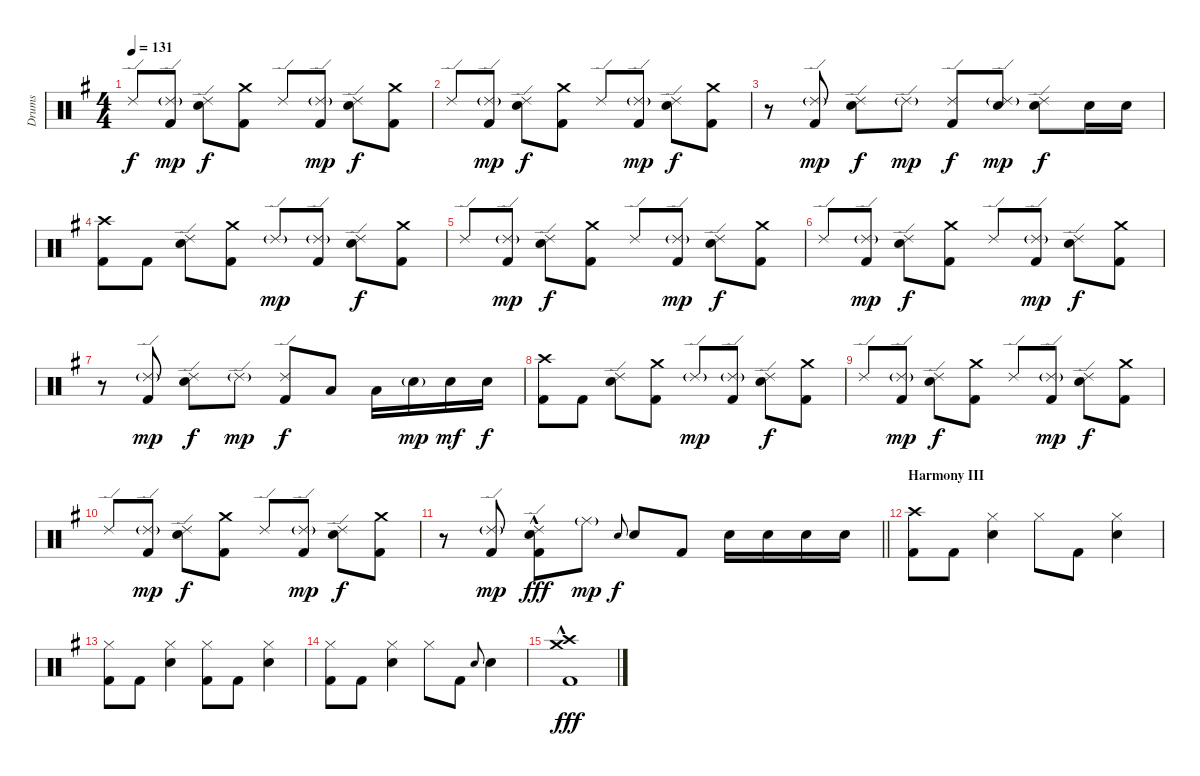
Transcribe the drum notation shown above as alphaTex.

\track ("Drums" "Drums") {instrument percussion}
\staff {score}
\articulation defaults
\ts (4 4)
\tempo 131
\clef neutral
\ks g "Ride (edge) 2".8{dy f}
("Ride (edge) 2"{g} "Kick (hit) 2").8{dy mp} ("Ride (edge) 2" "Electric Snare (hit)").8{dy f} ("Crash medium (hit)" "Kick (hit) 2").8 "Ride (edge) 2".8 ("Ride (edge) 2"{g} "Kick (hit) 2").8{dy mp} ("Ride (edge) 2" "Electric Snare (hit)").8{dy f} ("Crash medium (hit)" "Kick (hit) 2").8 |
"Ride (edge) 2".8 ("Ride (edge) 2"{g} "Kick (hit) 2").8{dy mp} ("Ride (edge) 2" "Electric Snare (hit)").8{dy f} ("Crash medium (hit)" "Kick (hit) 2").8 "Ride (edge) 2".8 ("Ride (edge) 2"{g} "Kick (hit) 2").8{dy mp} ("Ride (edge) 2" "Electric Snare (hit)").8{dy f} ("Crash medium (hit)" "Kick (hit) 2").8 |
r.8 ("Ride (edge) 2"{g} "Kick (hit) 2").8{dy mp} ("Ride (edge) 2" "Electric Snare (hit)").8{dy f} "Ride (edge) 2"{g}.8{dy mp} ("Ride (edge) 2" "Kick (hit) 2").8{dy f} ("Ride (edge) 2"{g} "Electric Snare (hit)").8{dy mp} ("Ride (edge) 2" "Electric Snare (hit)").8{dy f} "Electric Snare (hit)".16 "Electric Snare (hit)".16 |
("Crash high (hit)" "Kick (hit) 2").8 "Kick (hit) 2".8 ("Ride (edge) 2" "Electric Snare (hit)").8 ("Crash medium (hit)" "Kick (hit) 2").8 "Ride (edge) 2"{g}.8{dy mp} ("Ride (edge) 2"{g} "Kick (hit) 2").8 ("Ride (edge) 2" "Electric Snare (hit)").8{dy f} ("Crash medium (hit)" "Kick (hit) 2").8 |
"Ride (edge) 2".8 ("Ride (edge) 2"{g} "Kick (hit) 2").8{dy mp} ("Ride (edge) 2" "Electric Snare (hit)").8{dy f} ("Crash medium (hit)" "Kick (hit) 2").8 "Ride (edge) 2".8 ("Ride (edge) 2"{g} "Kick (hit) 2").8{dy mp} ("Ride (edge) 2" "Electric Snare (hit)").8{dy f} ("Crash medium (hit)" "Kick (hit) 2").8 |
"Ride (edge) 2".8 ("Ride (edge) 2"{g} "Kick (hit) 2").8{dy mp} ("Ride (edge) 2" "Electric Snare (hit)").8{dy f} ("Crash medium (hit)" "Kick (hit) 2").8 "Ride (edge) 2".8 ("Ride (edge) 2"{g} "Kick (hit) 2").8{dy mp} ("Ride (edge) 2" "Electric Snare (hit)").8{dy f} ("Crash medium (hit)" "Kick (hit) 2").8 |
r.8 ("Ride (edge) 2"{g} "Kick (hit) 2").8{dy mp} ("Ride (edge) 2" "Electric Snare (hit)").8{dy f} "Ride (edge) 2"{g}.8{dy mp} ("Ride (edge) 2" "Kick (hit) 2").8{dy f} "Low Tom (hit)".8 "Low Tom (hit)".16 "Electric Snare (hit)"{g}.16{dy mp} "Electric Snare (hit)".16{dy mf} "Electric Snare (hit)".16{dy f} |
("Crash high (hit)" "Kick (hit) 2").8 "Kick (hit) 2".8 ("Ride (edge) 2" "Electric Snare (hit)").8 ("Crash medium (hit)" "Kick (hit) 2").8 "Ride (edge) 2"{g}.8{dy mp} ("Ride (edge) 2"{g} "Kick (hit) 2").8 ("Ride (edge) 2" "Electric Snare (hit)").8{dy f} ("Crash medium (hit)" "Kick (hit) 2").8 |
"Ride (edge) 2".8 ("Ride (edge) 2"{g} "Kick (hit) 2").8{dy mp} ("Ride (edge) 2" "Electric Snare (hit)").8{dy f} ("Crash medium (hit)" "Kick (hit) 2").8 "Ride (edge) 2".8 ("Ride (edge) 2"{g} "Kick (hit) 2").8{dy mp} ("Ride (edge) 2" "Electric Snare (hit)").8{dy f} ("Crash medium (hit)" "Kick (hit) 2").8 |
"Ride (edge) 2".8 ("Ride (edge) 2"{g} "Kick (hit) 2").8{dy mp} ("Ride (edge) 2" "Electric Snare (hit)").8{dy f} ("Crash medium (hit)" "Kick (hit) 2").8 "Ride (edge) 2".8 ("Ride (edge) 2"{g} "Kick (hit) 2").8{dy mp} ("Ride (edge) 2" "Electric Snare (hit)").8{dy f} ("Crash medium (hit)" "Kick (hit) 2").8 |
\barLineRight lightlight
r.8 ("Ride (edge) 2"{g} "Kick (hit) 2").8{dy mp} ("Ride (edge) 2"{hac} "Electric Snare (hit)" "Kick (hit) 2").8{dy fff} "Ride (middle)"{g}.8{dy mp} "Electric Snare (hit)".8{gr onbeat dy f} "Electric Snare (hit)".8 "Kick (hit) 2".8 "Electric Snare (hit)".16 "Electric Snare (hit)".16 "Electric Snare (hit)".16 "Electric Snare (hit)".16 |
\section ("" "Harmony III")
("Crash high (hit)" "Kick (hit) 2").8 "Kick (hit) 2".8 ("Hi-Hat (closed)" "Electric Snare (hit)").4 "Hi-Hat (closed)".8 "Kick (hit) 2".8 ("Hi-Hat (closed)" "Electric Snare (hit)").4 |
("Hi-Hat (closed)" "Kick (hit) 2").8 "Kick (hit) 2".8 ("Hi-Hat (closed)" "Electric Snare (hit)").4 ("Hi-Hat (closed)" "Kick (hit) 2").8 "Kick (hit) 2".8 ("Hi-Hat (closed)" "Electric Snare (hit)").4 |
("Hi-Hat (closed)" "Kick (hit) 2").8 "Kick (hit) 2".8 ("Hi-Hat (closed)" "Electric Snare (hit)").4 "Hi-Hat (closed)".8 "Kick (hit) 2".8 "Electric Snare (hit)".8{gr onbeat} "Electric Snare (hit)".4 |
("Crash medium (hit)"{hac} "Crash high (hit)"{hac} "Kick (hit) 2"{hac}).1{dy fff}
